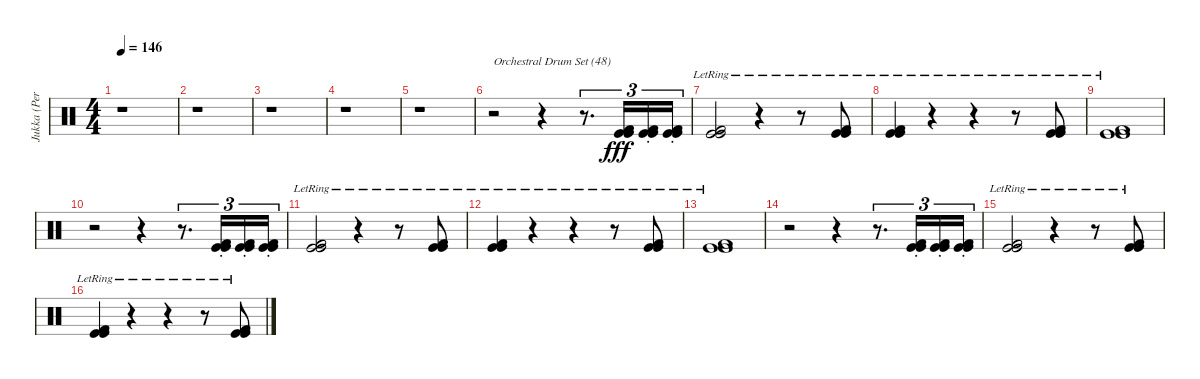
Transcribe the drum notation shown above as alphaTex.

\track ("Jukka (Percussion)" "Jukka (Per") {instrument percussion}
\staff {score}
\articulation defaults
\ts (4 4)
\tempo 146
\clef neutral
\ks c
r.1{dy fff} |
r.1 |
r.1 |
r.1 |
r.1 |
r.2{txt "Orchestral Drum Set (48)" volume 16} r.4 r.8{d tu (3 2)} ("Kick (hit)" "Kick (hit)"{st} "Kick (hit) 2"{st}).16{tu (3 2)} ("Kick (hit)" "Kick (hit)"{st} "Kick (hit) 2"{st}).16{tu (3 2)} ("Kick (hit)" "Kick (hit)"{st} "Kick (hit) 2"{st}).16{tu (3 2)} |
("Kick (hit)" "Kick (hit)"{lr} "Kick (hit) 2").2 r.4 r.8 ("Kick (hit)" "Kick (hit)"{lr} "Kick (hit) 2").8 |
("Kick (hit)" "Kick (hit)"{lr} "Kick (hit) 2").4 r.4 r.4 r.8 ("Kick (hit)" "Kick (hit)"{lr} "Kick (hit) 2").8 |
("Kick (hit)" "Kick (hit)"{lr} "Kick (hit) 2").1 |
r.2 r.4 r.8{d tu (3 2)} ("Kick (hit)" "Kick (hit)"{st} "Kick (hit) 2").16{tu (3 2)} ("Kick (hit)" "Kick (hit)"{st} "Kick (hit) 2").16{tu (3 2)} ("Kick (hit)" "Kick (hit)"{st} "Kick (hit) 2").16{tu (3 2)} |
("Kick (hit)" "Kick (hit)"{lr} "Kick (hit) 2").2 r.4 r.8 ("Kick (hit)" "Kick (hit)"{lr} "Kick (hit) 2").8 |
("Kick (hit)" "Kick (hit)"{lr} "Kick (hit) 2").4 r.4 r.4 r.8 ("Kick (hit)" "Kick (hit)"{lr} "Kick (hit) 2").8 |
("Kick (hit)" "Kick (hit)"{lr} "Kick (hit) 2").1 |
r.2 r.4 r.8{d tu (3 2)} ("Kick (hit)" "Kick (hit)"{st} "Kick (hit) 2").16{tu (3 2)} ("Kick (hit)" "Kick (hit)"{st} "Kick (hit) 2").16{tu (3 2)} ("Kick (hit)" "Kick (hit)"{st} "Kick (hit) 2").16{tu (3 2)} |
("Kick (hit)" "Kick (hit)"{lr} "Kick (hit) 2").2 r.4 r.8 ("Kick (hit)" "Kick (hit)"{lr} "Kick (hit) 2").8 |
("Kick (hit)" "Kick (hit)"{lr} "Kick (hit) 2").4 r.4 r.4 r.8 ("Kick (hit)" "Kick (hit)"{lr} "Kick (hit) 2").8
